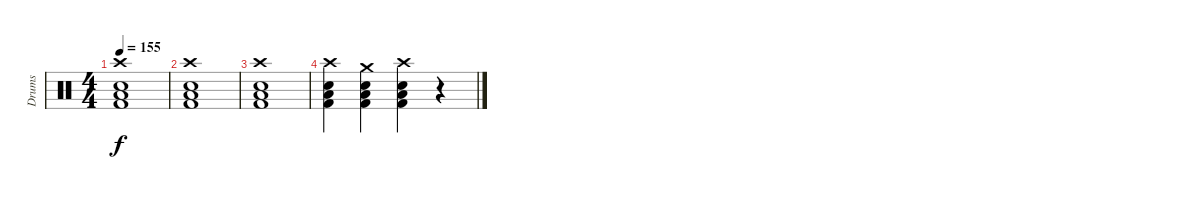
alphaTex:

\track ("Drums" "Drums") {instrument percussion}
\staff {score}
\articulation defaults
\ts (4 4)
\tempo 155
\clef neutral
\ks c
("Crash high (hit)" "Snare (hit) 2" "Low Floor Tom (hit)" "Kick (hit) 2").1{dy f} |
("Crash high (hit)" "Snare (hit) 2" "Low Floor Tom (hit)" "Kick (hit) 2").1 |
("Crash high (hit)" "Snare (hit) 2" "Low Floor Tom (hit)" "Kick (hit) 2").1 |
("Crash high (hit)" "Snare (hit) 2" "Low Floor Tom (hit)" "Kick (hit) 2").4 ("Crash medium (hit)" "Snare (hit) 2" "Low Floor Tom (hit)" "Kick (hit) 2").4 ("Crash high (hit)" "Snare (hit) 2" "Low Floor Tom (hit)" "Kick (hit) 2").4 r.4
